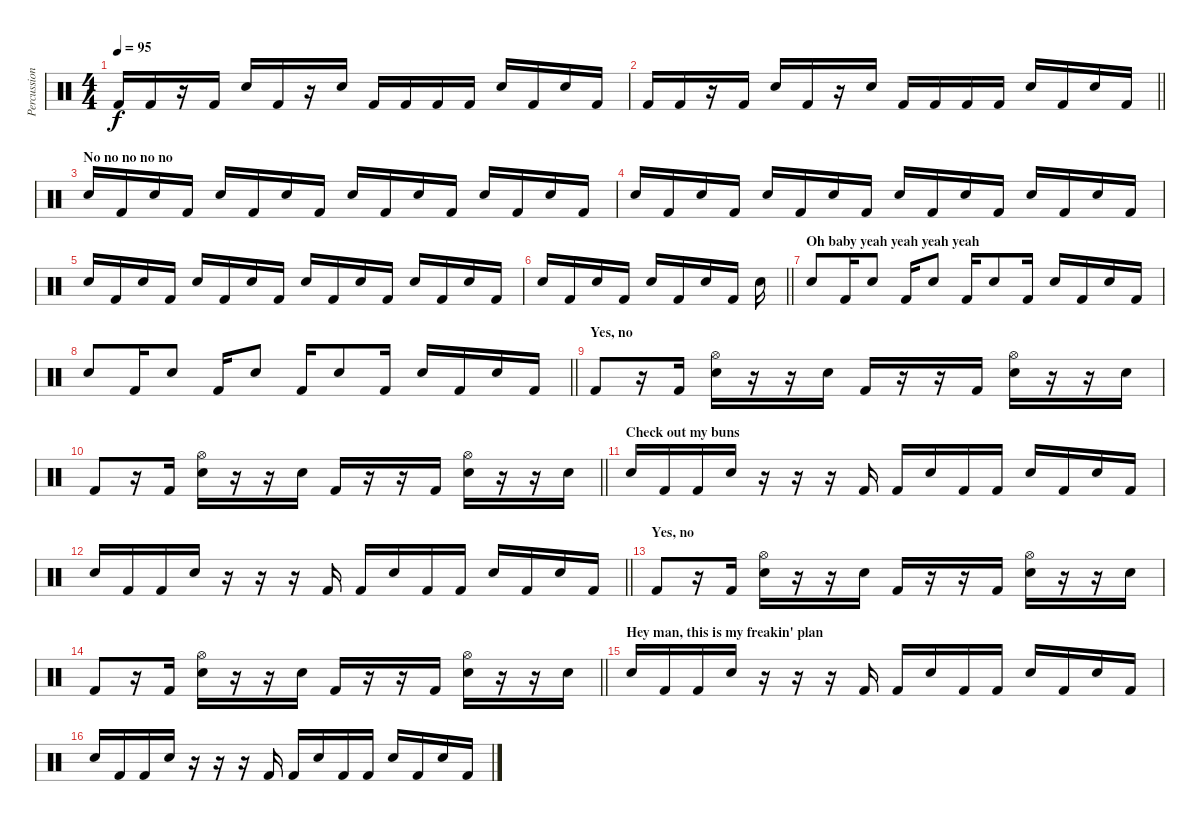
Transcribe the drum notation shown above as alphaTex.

\track ("Percussion" "Percussion") {instrument percussion}
\staff {score}
\articulation defaults
\ts (4 4)
\tempo 95
\clef neutral
\ks c "Kick (hit) 2".16{dy f} "Kick (hit) 2".16
r.16 "Kick (hit) 2".16 "Electric Snare (hit)".16 "Kick (hit) 2".16 r.16 "Electric Snare (hit)".16 "Kick (hit) 2".16 "Kick (hit) 2".16 "Kick (hit) 2".16 "Kick (hit) 2".16 "Electric Snare (hit)".16 "Kick (hit) 2".16 "Electric Snare (hit)".16 "Kick (hit) 2".16 |
\barLineRight lightlight "Kick (hit) 2".16 "Kick (hit) 2".16
r.16 "Kick (hit) 2".16 "Electric Snare (hit)".16 "Kick (hit) 2".16 r.16 "Electric Snare (hit)".16 "Kick (hit) 2".16 "Kick (hit) 2".16 "Kick (hit) 2".16 "Kick (hit) 2".16 "Electric Snare (hit)".16 "Kick (hit) 2".16 "Electric Snare (hit)".16 "Kick (hit) 2".16 |
\section ("" "No no no no no")
"Electric Snare (hit)".16 "Kick (hit) 2".16 "Electric Snare (hit)".16 "Kick (hit) 2".16 "Electric Snare (hit)".16 "Kick (hit) 2".16 "Electric Snare (hit)".16 "Kick (hit) 2".16 "Electric Snare (hit)".16 "Kick (hit) 2".16 "Electric Snare (hit)".16 "Kick (hit) 2".16 "Electric Snare (hit)".16 "Kick (hit) 2".16 "Electric Snare (hit)".16 "Kick (hit) 2".16 |
"Electric Snare (hit)".16 "Kick (hit) 2".16 "Electric Snare (hit)".16 "Kick (hit) 2".16 "Electric Snare (hit)".16 "Kick (hit) 2".16 "Electric Snare (hit)".16 "Kick (hit) 2".16 "Electric Snare (hit)".16 "Kick (hit) 2".16 "Electric Snare (hit)".16 "Kick (hit) 2".16 "Electric Snare (hit)".16 "Kick (hit) 2".16 "Electric Snare (hit)".16 "Kick (hit) 2".16 |
"Electric Snare (hit)".16 "Kick (hit) 2".16 "Electric Snare (hit)".16 "Kick (hit) 2".16 "Electric Snare (hit)".16 "Kick (hit) 2".16 "Electric Snare (hit)".16 "Kick (hit) 2".16 "Electric Snare (hit)".16 "Kick (hit) 2".16 "Electric Snare (hit)".16 "Kick (hit) 2".16 "Electric Snare (hit)".16 "Kick (hit) 2".16 "Electric Snare (hit)".16 "Kick (hit) 2".16 |
\barLineRight lightlight "Electric Snare (hit)".16 "Kick (hit) 2".16 "Electric Snare (hit)".16 "Kick (hit) 2".16 "Electric Snare (hit)".16 "Kick (hit) 2".16 "Electric Snare (hit)".16 "Kick (hit) 2".16 "Electric Snare (hit)".16
|
\section ("" "Oh baby yeah yeah yeah yeah")
"Electric Snare (hit)".8 "Kick (hit) 2".16 "Electric Snare (hit)".8 "Kick (hit) 2".16 "Electric Snare (hit)".8 "Kick (hit) 2".16 "Electric Snare (hit)".8 "Kick (hit) 2".16 "Electric Snare (hit)".16 "Kick (hit) 2".16 "Electric Snare (hit)".16 "Kick (hit) 2".16 |
\barLineRight lightlight "Electric Snare (hit)".8 "Kick (hit) 2".16 "Electric Snare (hit)".8 "Kick (hit) 2".16 "Electric Snare (hit)".8 "Kick (hit) 2".16 "Electric Snare (hit)".8 "Kick (hit) 2".16 "Electric Snare (hit)".16 "Kick (hit) 2".16 "Electric Snare (hit)".16 "Kick (hit) 2".16
|
\section ("" "Yes, no")
"Kick (hit) 2".8 r.16 "Kick (hit) 2".16 ("Electric Snare (hit)" "Hi-Hat (open)").16 r.16 r.16 "Electric Snare (hit)".16 "Kick (hit) 2".16 r.16 r.16 "Kick (hit) 2".16 ("Electric Snare (hit)" "Hi-Hat (open)").16 r.16 r.16 "Electric Snare (hit)".16 |
\barLineRight lightlight "Kick (hit) 2".8
r.16 "Kick (hit) 2".16 ("Electric Snare (hit)" "Hi-Hat (open)").16 r.16 r.16 "Electric Snare (hit)".16 "Kick (hit) 2".16 r.16 r.16 "Kick (hit) 2".16 ("Electric Snare (hit)" "Hi-Hat (open)").16 r.16 r.16 "Electric Snare (hit)".16 |
\section ("" "Check out my buns")
"Electric Snare (hit)".16 "Kick (hit) 2".16 "Kick (hit) 2".16 "Electric Snare (hit)".16 r.16 r.16 r.16 "Kick (hit) 2".16 "Kick (hit) 2".16 "Electric Snare (hit)".16 "Kick (hit) 2".16 "Kick (hit) 2".16 "Electric Snare (hit)".16 "Kick (hit) 2".16 "Electric Snare (hit)".16 "Kick (hit) 2".16 |
\barLineRight lightlight "Electric Snare (hit)".16 "Kick (hit) 2".16 "Kick (hit) 2".16 "Electric Snare (hit)".16
r.16 r.16 r.16 "Kick (hit) 2".16 "Kick (hit) 2".16 "Electric Snare (hit)".16 "Kick (hit) 2".16 "Kick (hit) 2".16 "Electric Snare (hit)".16 "Kick (hit) 2".16 "Electric Snare (hit)".16 "Kick (hit) 2".16 |
\section ("" "Yes, no")
"Kick (hit) 2".8 r.16 "Kick (hit) 2".16 ("Electric Snare (hit)" "Hi-Hat (open)").16 r.16 r.16 "Electric Snare (hit)".16 "Kick (hit) 2".16 r.16 r.16 "Kick (hit) 2".16 ("Electric Snare (hit)" "Hi-Hat (open)").16 r.16 r.16 "Electric Snare (hit)".16 |
\barLineRight lightlight "Kick (hit) 2".8
r.16 "Kick (hit) 2".16 ("Electric Snare (hit)" "Hi-Hat (open)").16 r.16 r.16 "Electric Snare (hit)".16 "Kick (hit) 2".16 r.16 r.16 "Kick (hit) 2".16 ("Electric Snare (hit)" "Hi-Hat (open)").16 r.16 r.16 "Electric Snare (hit)".16 |
\section ("" "Hey man, this is my freakin' plan")
"Electric Snare (hit)".16 "Kick (hit) 2".16 "Kick (hit) 2".16 "Electric Snare (hit)".16 r.16 r.16 r.16 "Kick (hit) 2".16 "Kick (hit) 2".16 "Electric Snare (hit)".16 "Kick (hit) 2".16 "Kick (hit) 2".16 "Electric Snare (hit)".16 "Kick (hit) 2".16 "Electric Snare (hit)".16 "Kick (hit) 2".16 |
"Electric Snare (hit)".16 "Kick (hit) 2".16 "Kick (hit) 2".16 "Electric Snare (hit)".16 r.16 r.16 r.16 "Kick (hit) 2".16 "Kick (hit) 2".16 "Electric Snare (hit)".16 "Kick (hit) 2".16 "Kick (hit) 2".16 "Electric Snare (hit)".16 "Kick (hit) 2".16 "Electric Snare (hit)".16 "Kick (hit) 2".16
